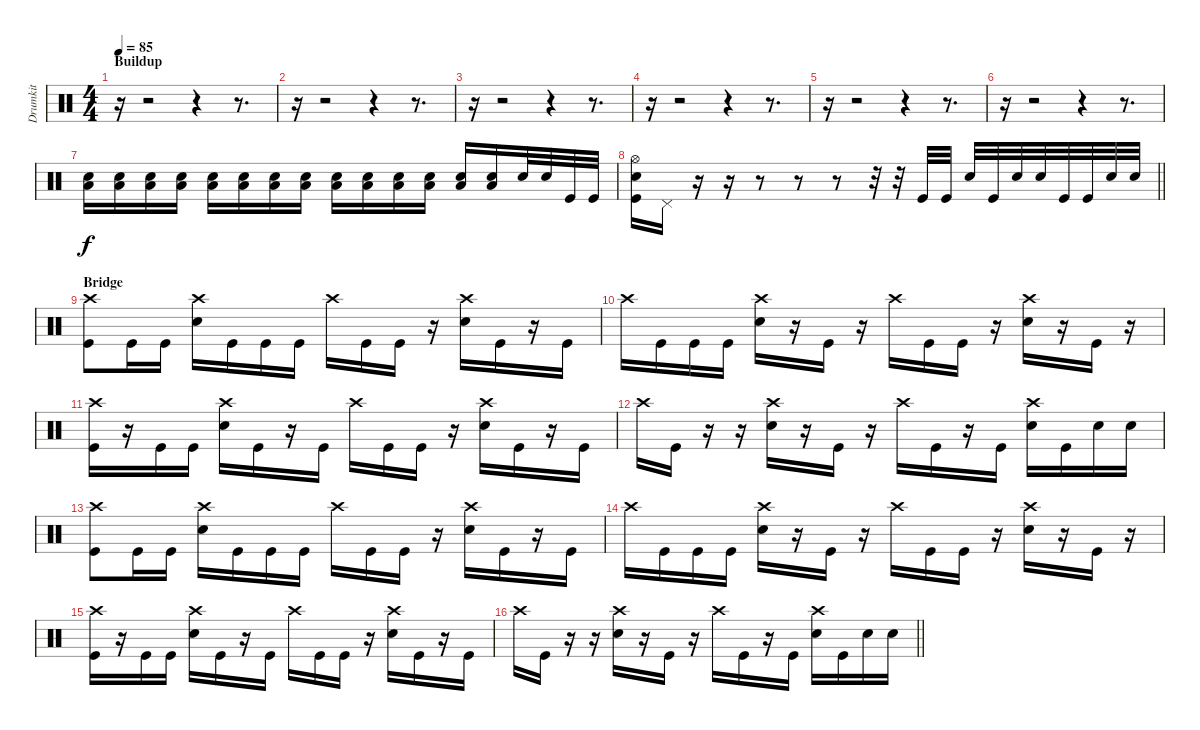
\track ("Drumkit" "Drumkit") {instrument percussion}
\staff {score}
\articulation defaults
\ts (4 4)
\section ("" "Buildup")
\tempo 85
\clef neutral
\ks c
r.16{dy f} r.2 r.4 r.8{d} |
r.16 r.2 r.4 r.8{d} |
r.16 r.2 r.4 r.8{d} |
r.16 r.2 r.4 r.8{d} |
r.16 r.2 r.4 r.8{d} |
r.16 r.2 r.4 r.8{d} |
("Snare (hit) 2" "Low Floor Tom (hit)").16 ("Snare (hit) 2" "Low Floor Tom (hit)").16 ("Snare (hit) 2" "Low Floor Tom (hit)").16 ("Snare (hit) 2" "Low Floor Tom (hit)").16 ("Snare (hit) 2" "Low Floor Tom (hit)").16 ("Snare (hit) 2" "Low Floor Tom (hit)").16 ("Snare (hit) 2" "Low Floor Tom (hit)").16 ("Snare (hit) 2" "Low Floor Tom (hit)").16 ("Snare (hit) 2" "Low Floor Tom (hit)").16 ("Snare (hit) 2" "Low Floor Tom (hit)").16 ("Snare (hit) 2" "Low Floor Tom (hit)").16 ("Snare (hit) 2" "Low Floor Tom (hit)").16 ("Snare (hit) 2" "Low Floor Tom (hit)").16 ("Snare (hit) 2" "Low Floor Tom (hit)").16 "Snare (hit) 2".32 "Snare (hit) 2".32 "Kick (hit)".32 "Kick (hit)".32 |
\barLineRight lightlight
("Hi-Hat (open)" "Snare (hit) 2" "Kick (hit)").16 "Pedal Hi-Hat (hit)".16 r.16 r.16 r.8 r.8 r.8 r.32 r.32 "Kick (hit)".32 "Kick (hit)".32 "Snare (hit) 2".32 "Kick (hit)".32 "Snare (hit) 2".32 "Snare (hit) 2".32 "Kick (hit)".32 "Kick (hit)".32 "Snare (hit) 2".32 "Snare (hit) 2".32 |
\section ("" "Bridge")
("Crash high (hit)" "Kick (hit)").8 "Kick (hit)".16 "Kick (hit)".16 ("Crash high (hit)" "Snare (hit) 2").16 "Kick (hit)".16 "Kick (hit)".16 "Kick (hit)".16 "Crash high (hit)".16 "Kick (hit)".16 "Kick (hit)".16 r.16 ("Crash high (hit)" "Snare (hit) 2").16 "Kick (hit)".16 r.16 "Kick (hit)".16 |
"Crash high (hit)".16 "Kick (hit)".16 "Kick (hit)".16 "Kick (hit)".16 ("Crash high (hit)" "Snare (hit) 2").16 r.16 "Kick (hit)".16 r.16 "Crash high (hit)".16 "Kick (hit)".16 "Kick (hit)".16 r.16 ("Crash high (hit)" "Snare (hit) 2").16 r.16 "Kick (hit)".16 r.16 |
("Crash high (hit)" "Kick (hit)").16 r.16 "Kick (hit)".16 "Kick (hit)".16 ("Crash high (hit)" "Snare (hit) 2").16 "Kick (hit)".16 r.16 "Kick (hit)".16 "Crash high (hit)".16 "Kick (hit)".16 "Kick (hit)".16 r.16 ("Crash high (hit)" "Snare (hit) 2").16 "Kick (hit)".16 r.16 "Kick (hit)".16 |
"Crash high (hit)".16 "Kick (hit)".16 r.16 r.16 ("Crash high (hit)" "Snare (hit) 2").16 r.16 "Kick (hit)".16 r.16 "Crash high (hit)".16 "Kick (hit)".16 r.16 "Kick (hit)".16 ("Crash high (hit)" "Snare (hit) 2").16 "Kick (hit)".16 "Snare (hit) 2".16 "Snare (hit) 2".16 |
("Crash high (hit)" "Kick (hit)").8 "Kick (hit)".16 "Kick (hit)".16 ("Crash high (hit)" "Snare (hit) 2").16 "Kick (hit)".16 "Kick (hit)".16 "Kick (hit)".16 "Crash high (hit)".16 "Kick (hit)".16 "Kick (hit)".16 r.16 ("Crash high (hit)" "Snare (hit) 2").16 "Kick (hit)".16 r.16 "Kick (hit)".16 |
"Crash high (hit)".16 "Kick (hit)".16 "Kick (hit)".16 "Kick (hit)".16 ("Crash high (hit)" "Snare (hit) 2").16 r.16 "Kick (hit)".16 r.16 "Crash high (hit)".16 "Kick (hit)".16 "Kick (hit)".16 r.16 ("Crash high (hit)" "Snare (hit) 2").16 r.16 "Kick (hit)".16 r.16 |
("Crash high (hit)" "Kick (hit)").16 r.16 "Kick (hit)".16 "Kick (hit)".16 ("Crash high (hit)" "Snare (hit) 2").16 "Kick (hit)".16 r.16 "Kick (hit)".16 "Crash high (hit)".16 "Kick (hit)".16 "Kick (hit)".16 r.16 ("Crash high (hit)" "Snare (hit) 2").16 "Kick (hit)".16 r.16 "Kick (hit)".16 |
\barLineRight lightlight "Crash high (hit)".16 "Kick (hit)".16
r.16 r.16 ("Crash high (hit)" "Snare (hit) 2").16 r.16 "Kick (hit)".16 r.16 "Crash high (hit)".16 "Kick (hit)".16 r.16 "Kick (hit)".16 ("Crash high (hit)" "Snare (hit) 2").16 "Kick (hit)".16 "Snare (hit) 2".16 "Snare (hit) 2".16
